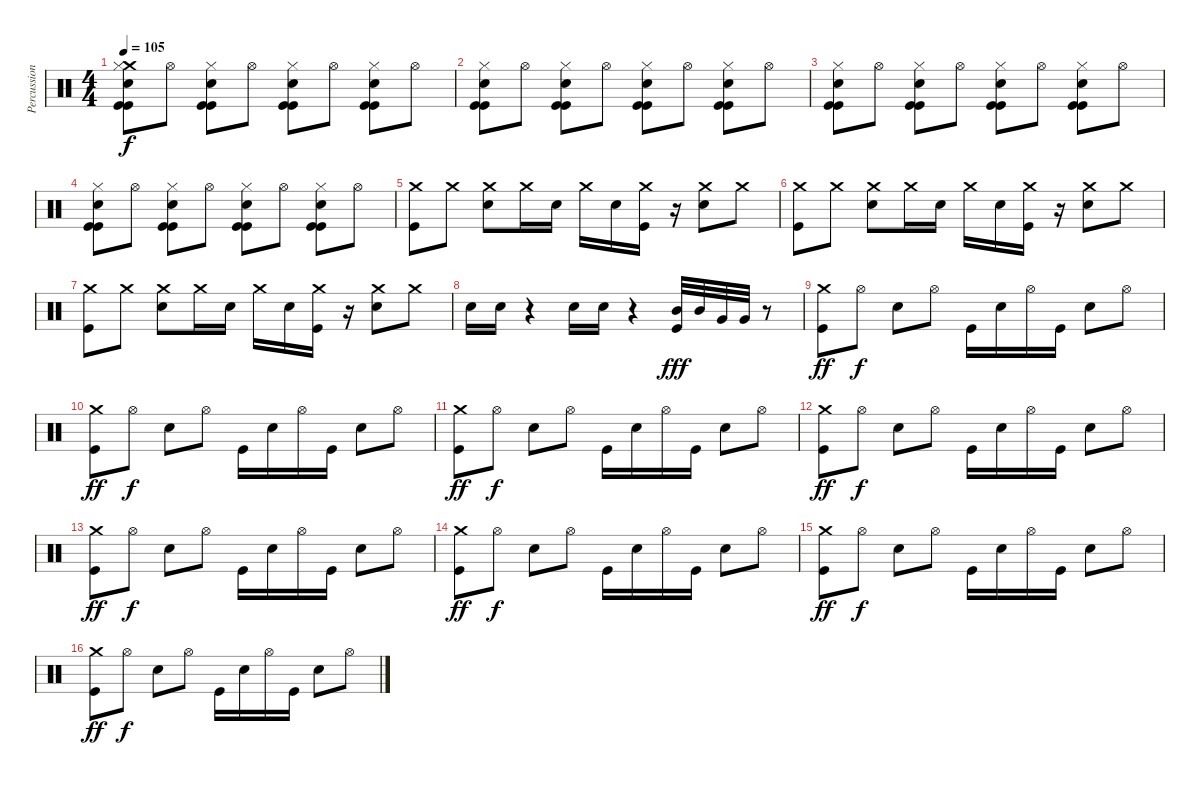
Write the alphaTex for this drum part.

\track ("Percussion" "Percussion") {instrument percussion}
\staff {score}
\articulation defaults
\ts (4 4)
\tempo 105
\clef neutral
\ks c
("Crash medium (hit)" "Hi-Hat (closed)" "Snare (hit) 2" "Kick (hit)" "Kick (hit)").8{dy f} "Hi-Hat (open)".8 ("Hi-Hat (closed)" "Snare (hit) 2" "Kick (hit)" "Kick (hit)").8 "Hi-Hat (open)".8 ("Hi-Hat (closed)" "Snare (hit) 2" "Kick (hit)" "Kick (hit)").8 "Hi-Hat (open)".8 ("Hi-Hat (closed)" "Snare (hit) 2" "Kick (hit)" "Kick (hit)").8 "Hi-Hat (open)".8 |
("Hi-Hat (closed)" "Snare (hit) 2" "Kick (hit)" "Kick (hit)").8 "Hi-Hat (open)".8 ("Hi-Hat (closed)" "Snare (hit) 2" "Kick (hit)" "Kick (hit)").8 "Hi-Hat (open)".8 ("Hi-Hat (closed)" "Snare (hit) 2" "Kick (hit)" "Kick (hit)").8 "Hi-Hat (open)".8 ("Hi-Hat (closed)" "Snare (hit) 2" "Kick (hit)" "Kick (hit)").8 "Hi-Hat (open)".8 |
("Hi-Hat (closed)" "Snare (hit) 2" "Kick (hit)" "Kick (hit)").8 "Hi-Hat (open)".8 ("Hi-Hat (closed)" "Snare (hit) 2" "Kick (hit)" "Kick (hit)").8 "Hi-Hat (open)".8 ("Hi-Hat (closed)" "Snare (hit) 2" "Kick (hit)" "Kick (hit)").8 "Hi-Hat (open)".8 ("Hi-Hat (closed)" "Snare (hit) 2" "Kick (hit)" "Kick (hit)").8 "Hi-Hat (open)".8 |
("Hi-Hat (closed)" "Snare (hit) 2" "Kick (hit)" "Kick (hit)").8 "Hi-Hat (open)".8 ("Hi-Hat (closed)" "Snare (hit) 2" "Kick (hit)" "Kick (hit)").8 "Hi-Hat (open)".8 ("Hi-Hat (closed)" "Snare (hit) 2" "Kick (hit)" "Kick (hit)").8 "Hi-Hat (open)".8 ("Hi-Hat (closed)" "Snare (hit) 2" "Kick (hit)" "Kick (hit)").8 "Hi-Hat (open)".8 |
("Crash medium (hit)" "Kick (hit)").8 "Crash medium (hit)".8 ("Crash medium (hit)" "Snare (hit) 2").8 "Crash medium (hit)".16 "Snare (hit) 2".16 "Crash medium (hit)".16 "Snare (hit) 2".16 ("Crash medium (hit)" "Kick (hit)").16 r.16 ("Crash medium (hit)" "Snare (hit) 2").8 "Crash medium (hit)".8 |
("Crash medium (hit)" "Kick (hit)").8 "Crash medium (hit)".8 ("Crash medium (hit)" "Snare (hit) 2").8 "Crash medium (hit)".16 "Snare (hit) 2".16 "Crash medium (hit)".16 "Snare (hit) 2".16 ("Crash medium (hit)" "Kick (hit)").16 r.16 ("Crash medium (hit)" "Snare (hit) 2").8 "Crash medium (hit)".8 |
("Crash medium (hit)" "Kick (hit)").8 "Crash medium (hit)".8 ("Crash medium (hit)" "Snare (hit) 2").8 "Crash medium (hit)".16 "Snare (hit) 2".16 "Crash medium (hit)".16 "Snare (hit) 2".16 ("Crash medium (hit)" "Kick (hit)").16 r.16 ("Crash medium (hit)" "Snare (hit) 2").8 "Crash medium (hit)".8 |
"Electric Snare (hit)".16 "Electric Snare (hit)".16 r.4 "Electric Snare (hit)".16 "Electric Snare (hit)".16 r.4 ("Mid Tom (hit)" "Kick (hit)").32{dy fff} "Mid Tom (hit)".32 "Very Low Tom (hit)".32 "Very Low Tom (hit)".32 r.8 |
("Crash medium (hit)" "Kick (hit)").8{dy ff} "Hi-Hat (open)".8{dy f} "Electric Snare (hit)".8 "Hi-Hat (open)".8 "Kick (hit)".16 "Electric Snare (hit)".16 "Hi-Hat (open)".16 "Kick (hit)".16 "Electric Snare (hit)".8 "Hi-Hat (open)".8 |
("Crash medium (hit)" "Kick (hit)").8{dy ff} "Hi-Hat (open)".8{dy f} "Electric Snare (hit)".8 "Hi-Hat (open)".8 "Kick (hit)".16 "Electric Snare (hit)".16 "Hi-Hat (open)".16 "Kick (hit)".16 "Electric Snare (hit)".8 "Hi-Hat (open)".8 |
("Crash medium (hit)" "Kick (hit)").8{dy ff} "Hi-Hat (open)".8{dy f} "Electric Snare (hit)".8 "Hi-Hat (open)".8 "Kick (hit)".16 "Electric Snare (hit)".16 "Hi-Hat (open)".16 "Kick (hit)".16 "Electric Snare (hit)".8 "Hi-Hat (open)".8 |
("Crash medium (hit)" "Kick (hit)").8{dy ff} "Hi-Hat (open)".8{dy f} "Electric Snare (hit)".8 "Hi-Hat (open)".8 "Kick (hit)".16 "Electric Snare (hit)".16 "Hi-Hat (open)".16 "Kick (hit)".16 "Electric Snare (hit)".8 "Hi-Hat (open)".8 |
("Crash medium (hit)" "Kick (hit)").8{dy ff} "Hi-Hat (open)".8{dy f} "Electric Snare (hit)".8 "Hi-Hat (open)".8 "Kick (hit)".16 "Electric Snare (hit)".16 "Hi-Hat (open)".16 "Kick (hit)".16 "Electric Snare (hit)".8 "Hi-Hat (open)".8 |
("Crash medium (hit)" "Kick (hit)").8{dy ff} "Hi-Hat (open)".8{dy f} "Electric Snare (hit)".8 "Hi-Hat (open)".8 "Kick (hit)".16 "Electric Snare (hit)".16 "Hi-Hat (open)".16 "Kick (hit)".16 "Electric Snare (hit)".8 "Hi-Hat (open)".8 |
("Crash medium (hit)" "Kick (hit)").8{dy ff} "Hi-Hat (open)".8{dy f} "Electric Snare (hit)".8 "Hi-Hat (open)".8 "Kick (hit)".16 "Electric Snare (hit)".16 "Hi-Hat (open)".16 "Kick (hit)".16 "Electric Snare (hit)".8 "Hi-Hat (open)".8 |
("Crash medium (hit)" "Kick (hit)").8{dy ff} "Hi-Hat (open)".8{dy f} "Electric Snare (hit)".8 "Hi-Hat (open)".8 "Kick (hit)".16 "Electric Snare (hit)".16 "Hi-Hat (open)".16 "Kick (hit)".16 "Electric Snare (hit)".8 "Hi-Hat (open)".8
